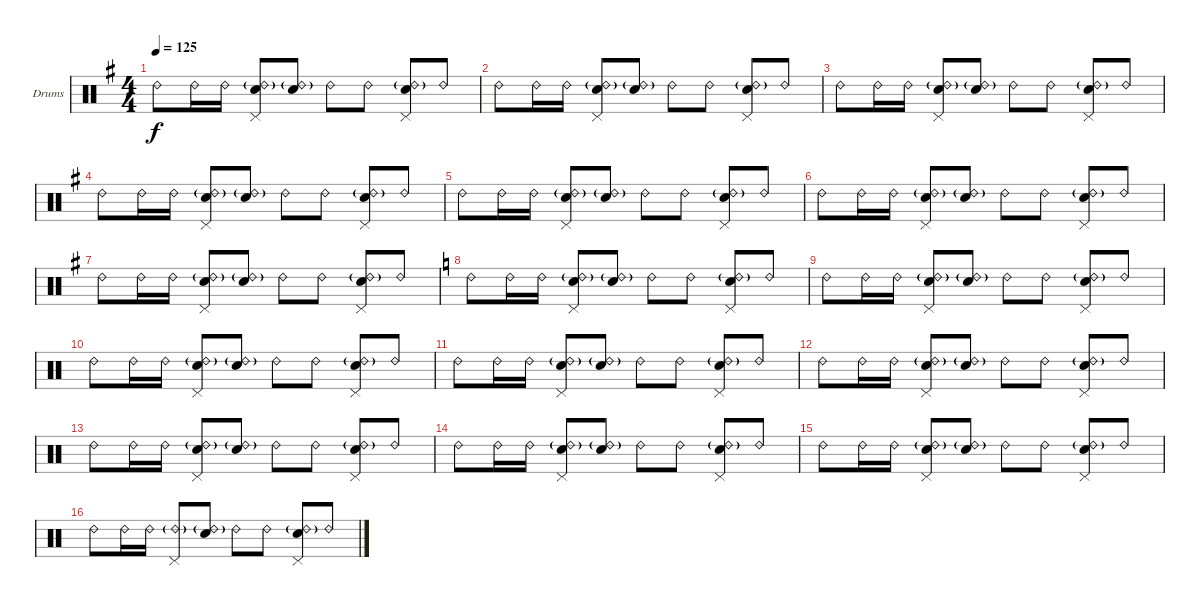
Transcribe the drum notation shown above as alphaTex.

\defaultSystemsLayout 4
\bracketExtendMode groupsimilarinstruments
\firstSystemTrackNameOrientation horizontal
\otherSystemsTrackNameOrientation horizontal
\track ("Drums" "Drums") {instrument percussion}
\staff {score}
\articulation defaults
\ts (4 4)
\tempo 125
\clef neutral
\scale
0.502183
\ks g "Ride (bell) 2".8{dy f} "Ride (bell) 2".16 "Ride (bell) 2".16
("Ride (bell) 2"{g} "Snare (hit) 2" "Pedal Hi-Hat (hit)").8 ("Snare (hit) 2" "Ride (bell) 2"{g}).8 "Ride (bell) 2".8 "Ride (bell) 2".8 ("Ride (bell) 2"{g} "Snare (hit) 2" "Pedal Hi-Hat (hit)").8 "Ride (bell) 2".8 |
\scale
0.248908 "Ride (bell) 2".8 "Ride (bell) 2".16 "Ride (bell) 2".16 ("Ride (bell) 2"{g} "Snare (hit) 2" "Pedal Hi-Hat (hit)").8 ("Snare (hit) 2" "Ride (bell) 2"{g}).8 "Ride (bell) 2".8 "Ride (bell) 2".8 ("Ride (bell) 2"{g} "Snare (hit) 2" "Pedal Hi-Hat (hit)").8 "Ride (bell) 2".8 |
\scale
0.248908 "Ride (bell) 2".8 "Ride (bell) 2".16 "Ride (bell) 2".16 ("Ride (bell) 2"{g} "Snare (hit) 2" "Pedal Hi-Hat (hit)").8 ("Snare (hit) 2" "Ride (bell) 2"{g}).8 "Ride (bell) 2".8 "Ride (bell) 2".8 ("Ride (bell) 2"{g} "Snare (hit) 2" "Pedal Hi-Hat (hit)").8 "Ride (bell) 2".8 |
\scale
0.333333 "Ride (bell) 2".8 "Ride (bell) 2".16 "Ride (bell) 2".16 ("Ride (bell) 2"{g} "Snare (hit) 2" "Pedal Hi-Hat (hit)").8 ("Snare (hit) 2" "Ride (bell) 2"{g}).8 "Ride (bell) 2".8 "Ride (bell) 2".8 ("Ride (bell) 2"{g} "Snare (hit) 2" "Pedal Hi-Hat (hit)").8 "Ride (bell) 2".8 |
\scale
0.333333 "Ride (bell) 2".8 "Ride (bell) 2".16 "Ride (bell) 2".16 ("Ride (bell) 2"{g} "Snare (hit) 2" "Pedal Hi-Hat (hit)").8 ("Snare (hit) 2" "Ride (bell) 2"{g}).8 "Ride (bell) 2".8 "Ride (bell) 2".8 ("Ride (bell) 2"{g} "Snare (hit) 2" "Pedal Hi-Hat (hit)").8 "Ride (bell) 2".8 |
\scale
0.333333 "Ride (bell) 2".8 "Ride (bell) 2".16 "Ride (bell) 2".16 ("Ride (bell) 2"{g} "Snare (hit) 2" "Pedal Hi-Hat (hit)").8 ("Snare (hit) 2" "Ride (bell) 2"{g}).8 "Ride (bell) 2".8 "Ride (bell) 2".8 ("Ride (bell) 2"{g} "Snare (hit) 2" "Pedal Hi-Hat (hit)").8 "Ride (bell) 2".8 |
\scale
0.333333 "Ride (bell) 2".8 "Ride (bell) 2".16 "Ride (bell) 2".16 ("Ride (bell) 2"{g} "Snare (hit) 2" "Pedal Hi-Hat (hit)").8 ("Snare (hit) 2" "Ride (bell) 2"{g}).8 "Ride (bell) 2".8 "Ride (bell) 2".8 ("Ride (bell) 2"{g} "Snare (hit) 2" "Pedal Hi-Hat (hit)").8 "Ride (bell) 2".8 |
\scale
0.333333
\ks c "Ride (bell) 2".8 "Ride (bell) 2".16 "Ride (bell) 2".16
("Ride (bell) 2"{g} "Snare (hit) 2" "Pedal Hi-Hat (hit)").8 ("Snare (hit) 2" "Ride (bell) 2"{g}).8 "Ride (bell) 2".8 "Ride (bell) 2".8 ("Ride (bell) 2"{g} "Snare (hit) 2" "Pedal Hi-Hat (hit)").8 "Ride (bell) 2".8 |
\scale
0.333333 "Ride (bell) 2".8 "Ride (bell) 2".16 "Ride (bell) 2".16 ("Ride (bell) 2"{g} "Snare (hit) 2" "Pedal Hi-Hat (hit)").8 ("Snare (hit) 2" "Ride (bell) 2"{g}).8 "Ride (bell) 2".8 "Ride (bell) 2".8 ("Ride (bell) 2"{g} "Snare (hit) 2" "Pedal Hi-Hat (hit)").8 "Ride (bell) 2".8 |
\scale
0.333333 "Ride (bell) 2".8 "Ride (bell) 2".16 "Ride (bell) 2".16 ("Ride (bell) 2"{g} "Snare (hit) 2" "Pedal Hi-Hat (hit)").8 ("Snare (hit) 2" "Ride (bell) 2"{g}).8 "Ride (bell) 2".8 "Ride (bell) 2".8 ("Ride (bell) 2"{g} "Snare (hit) 2" "Pedal Hi-Hat (hit)").8 "Ride (bell) 2".8 |
\scale
0.333333 "Ride (bell) 2".8 "Ride (bell) 2".16 "Ride (bell) 2".16 ("Ride (bell) 2"{g} "Snare (hit) 2" "Pedal Hi-Hat (hit)").8 ("Snare (hit) 2" "Ride (bell) 2"{g}).8 "Ride (bell) 2".8 "Ride (bell) 2".8 ("Ride (bell) 2"{g} "Snare (hit) 2" "Pedal Hi-Hat (hit)").8 "Ride (bell) 2".8 |
\scale
0.333333 "Ride (bell) 2".8 "Ride (bell) 2".16 "Ride (bell) 2".16 ("Ride (bell) 2"{g} "Snare (hit) 2" "Pedal Hi-Hat (hit)").8 ("Snare (hit) 2" "Ride (bell) 2"{g}).8 "Ride (bell) 2".8 "Ride (bell) 2".8 ("Ride (bell) 2"{g} "Snare (hit) 2" "Pedal Hi-Hat (hit)").8 "Ride (bell) 2".8 |
\scale
0.333333 "Ride (bell) 2".8 "Ride (bell) 2".16 "Ride (bell) 2".16 ("Ride (bell) 2"{g} "Snare (hit) 2" "Pedal Hi-Hat (hit)").8 ("Snare (hit) 2" "Ride (bell) 2"{g}).8 "Ride (bell) 2".8 "Ride (bell) 2".8 ("Ride (bell) 2"{g} "Snare (hit) 2" "Pedal Hi-Hat (hit)").8 "Ride (bell) 2".8 |
\scale
0.333333 "Ride (bell) 2".8 "Ride (bell) 2".16 "Ride (bell) 2".16 ("Ride (bell) 2"{g} "Snare (hit) 2" "Pedal Hi-Hat (hit)").8 ("Snare (hit) 2" "Ride (bell) 2"{g}).8 "Ride (bell) 2".8 "Ride (bell) 2".8 ("Ride (bell) 2"{g} "Snare (hit) 2" "Pedal Hi-Hat (hit)").8 "Ride (bell) 2".8 |
\scale
0.333333 "Ride (bell) 2".8 "Ride (bell) 2".16 "Ride (bell) 2".16 ("Ride (bell) 2"{g} "Snare (hit) 2" "Pedal Hi-Hat (hit)").8 ("Snare (hit) 2" "Ride (bell) 2"{g}).8 "Ride (bell) 2".8 "Ride (bell) 2".8 ("Ride (bell) 2"{g} "Snare (hit) 2" "Pedal Hi-Hat (hit)").8 "Ride (bell) 2".8 |
\scale
0.333333 "Ride (bell) 2".8 "Ride (bell) 2".16 "Ride (bell) 2".16 ("Ride (bell) 2"{g} "Pedal Hi-Hat (hit)").8 ("Snare (hit) 2" "Ride (bell) 2"{g}).8 "Ride (bell) 2".8 "Ride (bell) 2".8 ("Ride (bell) 2"{g} "Snare (hit) 2" "Pedal Hi-Hat (hit)").8 "Ride (bell) 2".8
